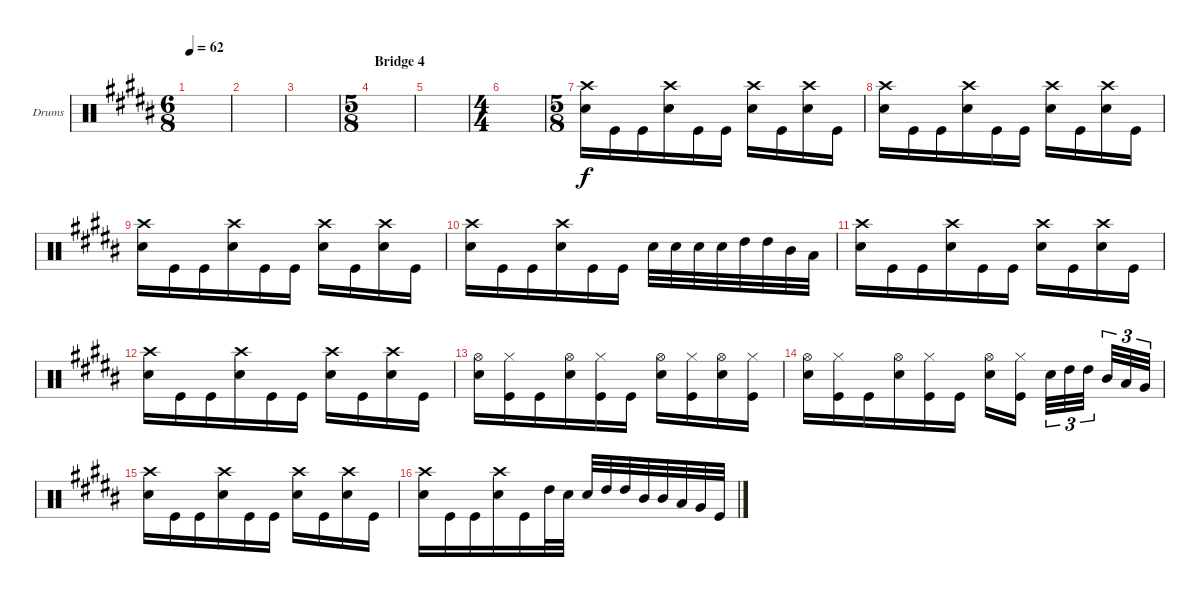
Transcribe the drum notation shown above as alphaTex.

\defaultSystemsLayout 4
\bracketExtendMode groupsimilarinstruments
\firstSystemTrackNameOrientation horizontal
\otherSystemsTrackNameOrientation horizontal
\track ("Drums" "Drums") {instrument percussion}
\staff {score}
\articulation defaults
\ts (6 8)
\tempo 62
\clef neutral
\ks g#minor
|
|
|
\ts (5 8)
\section ("" "Bridge 4")
|
|
\ts (4 4)
|
\ts (5 8)
("Snare (hit) 2" "Crash high (hit)").16 "Kick (hit)".16 "Kick (hit)".16 ("Snare (hit) 2" "Crash high (hit)").16 "Kick (hit)".16 "Kick (hit)".16 ("Snare (hit) 2" "Crash high (hit)").16 "Kick (hit)".16 ("Snare (hit) 2" "Crash high (hit)").16 "Kick (hit)".16 |
("Snare (hit) 2" "Crash high (hit)").16 "Kick (hit)".16 "Kick (hit)".16 ("Snare (hit) 2" "Crash high (hit)").16 "Kick (hit)".16 "Kick (hit)".16 ("Snare (hit) 2" "Crash high (hit)").16 "Kick (hit)".16 ("Snare (hit) 2" "Crash high (hit)").16 "Kick (hit)".16 |
("Snare (hit) 2" "Crash high (hit)").16 "Kick (hit)".16 "Kick (hit)".16 ("Snare (hit) 2" "Crash high (hit)").16 "Kick (hit)".16 "Kick (hit)".16 ("Snare (hit) 2" "Crash high (hit)").16 "Kick (hit)".16 ("Snare (hit) 2" "Crash high (hit)").16 "Kick (hit)".16 |
("Snare (hit) 2" "Crash high (hit)").16 "Kick (hit)".16 "Kick (hit)".16 ("Snare (hit) 2" "Crash high (hit)").16 "Kick (hit)".16 "Kick (hit)".16 "Snare (hit) 2".32 "Snare (hit) 2".32 "Snare (hit) 2".32 "Snare (hit) 2".32 "High Tom (hit)".32 "High Tom (hit)".32 "Mid Tom (hit)".32 "Low Tom (hit)".32 |
("Snare (hit) 2" "Crash high (hit)").16 "Kick (hit)".16 "Kick (hit)".16 ("Snare (hit) 2" "Crash high (hit)").16 "Kick (hit)".16 "Kick (hit)".16 ("Snare (hit) 2" "Crash high (hit)").16 "Kick (hit)".16 ("Snare (hit) 2" "Crash high (hit)").16 "Kick (hit)".16 |
("Snare (hit) 2" "Crash high (hit)").16 "Kick (hit)".16 "Kick (hit)".16 ("Snare (hit) 2" "Crash high (hit)").16 "Kick (hit)".16 "Kick (hit)".16 ("Snare (hit) 2" "Crash high (hit)").16 "Kick (hit)".16 ("Snare (hit) 2" "Crash high (hit)").16 "Kick (hit)".16 |
("Snare (hit) 2" "Hi-Hat (open)").16 ("Kick (hit)" "Hi-Hat (closed)").16 "Kick (hit)".16 ("Snare (hit) 2" "Hi-Hat (open)").16 ("Kick (hit)" "Hi-Hat (closed)").16 "Kick (hit)".16 ("Snare (hit) 2" "Hi-Hat (open)").16 ("Kick (hit)" "Hi-Hat (closed)").16 ("Snare (hit) 2" "Hi-Hat (open)").16 ("Kick (hit)" "Hi-Hat (closed)").16 |
("Snare (hit) 2" "Hi-Hat (open)").16 ("Kick (hit)" "Hi-Hat (closed)").16 "Kick (hit)".16 ("Snare (hit) 2" "Hi-Hat (open)").16 ("Kick (hit)" "Hi-Hat (closed)").16 "Kick (hit)".16 ("Snare (hit) 2" "Hi-Hat (open)").16 ("Kick (hit)" "Hi-Hat (closed)").16 "Snare (hit) 2".32{tu (3 2)} "High Tom (hit)".32{tu (3 2)} "High Tom (hit)".32{tu (3 2)} "Mid Tom (hit)".32{tu (3 2)} "Low Tom (hit)".32{tu (3 2)} "Very Low Tom (hit)".32{tu (3 2)} |
("Snare (hit) 2" "Crash high (hit)").16 "Kick (hit)".16 "Kick (hit)".16 ("Snare (hit) 2" "Crash high (hit)").16 "Kick (hit)".16 "Kick (hit)".16 ("Snare (hit) 2" "Crash high (hit)").16 "Kick (hit)".16 ("Snare (hit) 2" "Crash high (hit)").16 "Kick (hit)".16 |
("Snare (hit) 2" "Crash high (hit)").16 "Kick (hit)".16 "Kick (hit)".16 ("Snare (hit) 2" "Crash high (hit)").16 "Kick (hit)".16 "High Tom (hit)".32 "Snare (hit) 2".32 "Snare (hit) 2".32 "High Tom (hit)".32 "High Tom (hit)".32 "Mid Tom (hit)".32 "Mid Tom (hit)".32 "Low Tom (hit)".32 "Very Low Tom (hit)".32 "Kick (hit)".32
